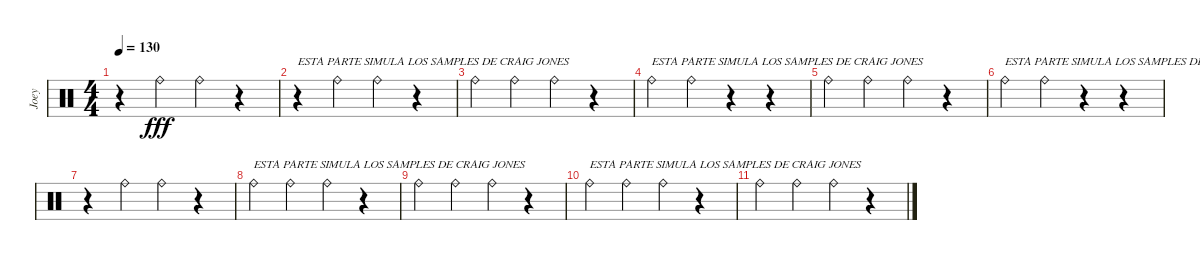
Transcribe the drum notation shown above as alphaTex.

\track ("Joey" "Joey") {instrument percussion}
\staff {score}
\articulation defaults
\ts (4 4)
\tempo 130
\clef neutral
\ks c
r.4{dy fff} "Ride (bell)".4 "Ride (bell)".4 r.4 |
r.4{txt "ESTA PARTE SIMULA LOS SAMPLES DE CRAIG JONES"} "Ride (bell)".4 "Ride (bell)".4 r.4 |
"Ride (bell)".4 "Ride (bell)".4 "Ride (bell)".4 r.4 |
"Ride (bell)".4{txt "ESTA PARTE SIMULA LOS SAMPLES DE CRAIG JONES"} "Ride (bell)".4 r.4 r.4 |
"Ride (bell)".4 "Ride (bell)".4 "Ride (bell)".4 r.4 |
"Ride (bell)".4{txt "ESTA PARTE SIMULA LOS SAMPLES DE CRAIG JONES" volume 0} "Ride (bell)".4 r.4 r.4 |
r.4 "Ride (bell)".4 "Ride (bell)".4 r.4 |
"Ride (bell)".4{txt "ESTA PARTE SIMULA LOS SAMPLES DE CRAIG JONES"} "Ride (bell)".4 "Ride (bell)".4 r.4 |
"Ride (bell)".4 "Ride (bell)".4 "Ride (bell)".4 r.4 |
"Ride (bell)".4{txt "ESTA PARTE SIMULA LOS SAMPLES DE CRAIG JONES"} "Ride (bell)".4 "Ride (bell)".4 r.4 |
"Ride (bell)".4 "Ride (bell)".4 "Ride (bell)".4 r.4
